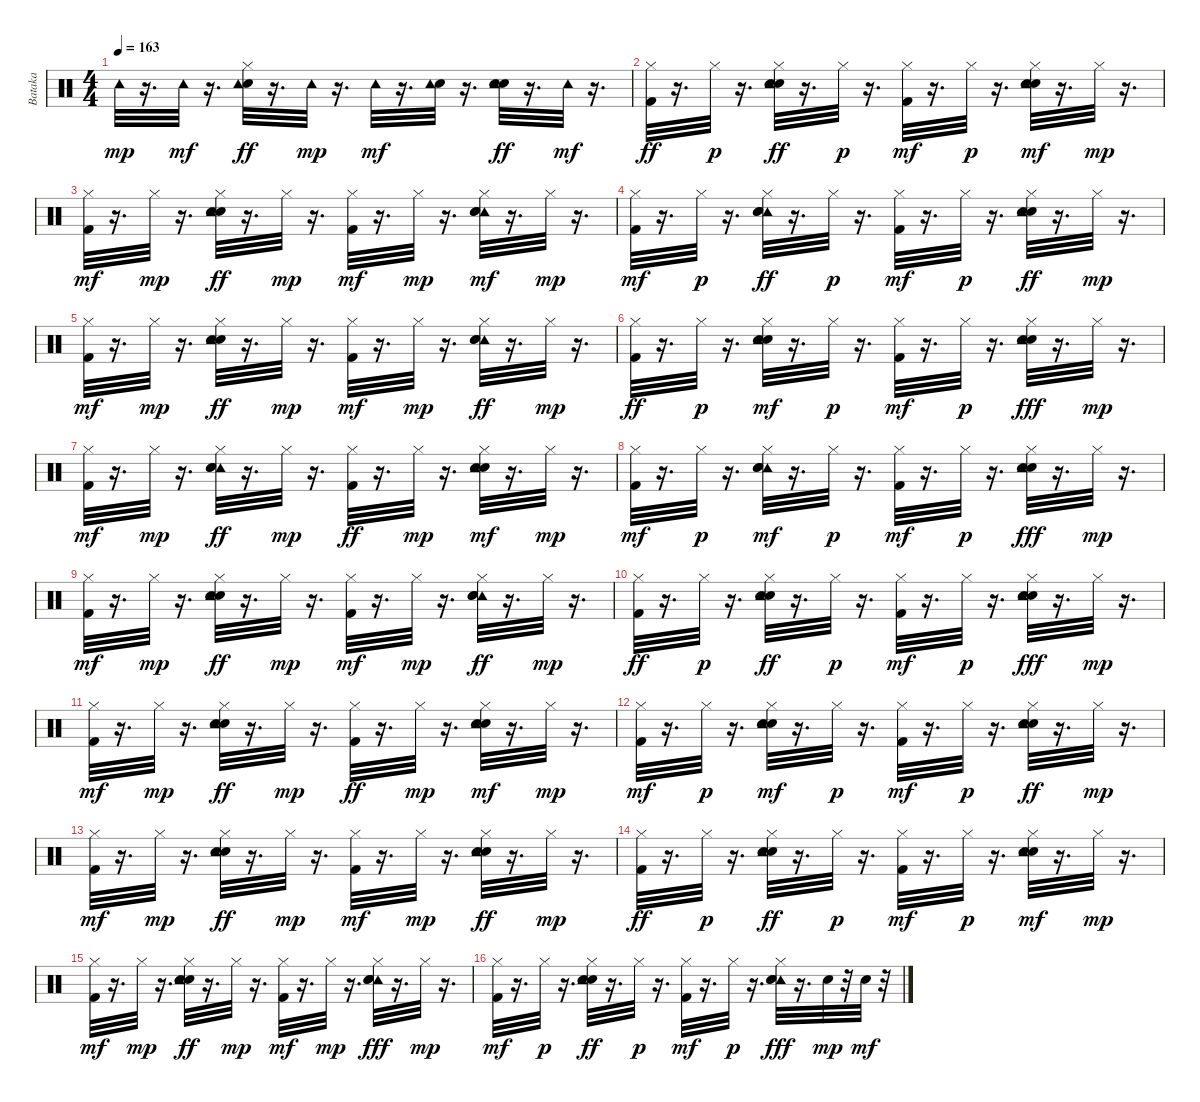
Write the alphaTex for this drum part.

\track ("Bataka" "Bataka") {instrument percussion}
\staff {score}
\articulation defaults
\ts (4 4)
\tempo 163
\clef neutral
\ks c "Tambourine (hit)".32{dy mp}
r.16{d} "Tambourine (hit)".32{dy mf} r.16{d} ("Hand Clap (hit)" "Hi-Hat (closed)" "Tambourine (hit)").32{dy ff} r.16{d} "Tambourine (hit)".32{dy mp} r.16{d} "Tambourine (hit)".32{dy mf} r.16{d} ("Electric Snare (hit)" "Tambourine (hit)").32 r.16{d} ("Electric Snare (hit)" "Hand Clap (hit)" "Tambourine (hit)").32{dy ff} r.16{d} "Tambourine (hit)".32{dy mf} r.16{d} |
("Hi-Hat (closed)" "Kick (hit) 2").32{dy ff} r.16{d} "Hi-Hat (closed)".32{dy p} r.16{d} ("Hand Clap (hit)" "Electric Snare (hit)" "Hi-Hat (closed)" "Tambourine (hit)").32{dy ff} r.16{d} "Hi-Hat (closed)".32{dy p} r.16{d} ("Kick (hit) 2" "Hi-Hat (closed)").32{dy mf} r.16{d} "Hi-Hat (closed)".32{dy p} r.16{d} ("Electric Snare (hit)" "Hand Clap (hit)" "Hi-Hat (closed)" "Tambourine (hit)").32{dy mf} r.16{d} "Hi-Hat (closed)".32{dy mp} r.16{d} |
("Hi-Hat (closed)" "Kick (hit) 2").32{dy mf} r.16{d} "Hi-Hat (closed)".32{dy mp} r.16{d} ("Electric Snare (hit)" "Hi-Hat (closed)" "Hand Clap (hit)" "Tambourine (hit)").32{dy ff} r.16{d} "Hi-Hat (closed)".32{dy mp} r.16{d} ("Kick (hit) 2" "Hi-Hat (closed)").32{dy mf} r.16{d} "Hi-Hat (closed)".32{dy mp} r.16{d} ("Tambourine (hit)" "Hand Clap (hit)" "Electric Snare (hit)" "Hi-Hat (closed)").32{dy mf} r.16{d} "Hi-Hat (closed)".32{dy mp} r.16{d} |
("Hi-Hat (closed)" "Kick (hit) 2").32{dy mf} r.16{d} "Hi-Hat (closed)".32{dy p} r.16{d} ("Hi-Hat (closed)" "Tambourine (hit)" "Electric Snare (hit)" "Hand Clap (hit)").32{dy ff} r.16{d} "Hi-Hat (closed)".32{dy p} r.16{d} ("Kick (hit) 2" "Hi-Hat (closed)").32{dy mf} r.16{d} "Hi-Hat (closed)".32{dy p} r.16{d} ("Hi-Hat (closed)" "Hand Clap (hit)" "Electric Snare (hit)" "Tambourine (hit)").32{dy ff} r.16{d} "Hi-Hat (closed)".32{dy mp} r.16{d} |
("Kick (hit) 2" "Hi-Hat (closed)").32{dy mf} r.16{d} "Hi-Hat (closed)".32{dy mp} r.16{d} ("Electric Snare (hit)" "Hand Clap (hit)" "Tambourine (hit)" "Hi-Hat (closed)").32{dy ff} r.16{d} "Hi-Hat (closed)".32{dy mp} r.16{d} ("Kick (hit) 2" "Hi-Hat (closed)").32{dy mf} r.16{d} "Hi-Hat (closed)".32{dy mp} r.16{d} ("Tambourine (hit)" "Hand Clap (hit)" "Electric Snare (hit)" "Hi-Hat (closed)").32{dy ff} r.16{d} "Hi-Hat (closed)".32{dy mp} r.16{d} |
("Kick (hit) 2" "Hi-Hat (closed)").32{dy ff} r.16{d} "Hi-Hat (closed)".32{dy p} r.16{d} ("Electric Snare (hit)" "Hand Clap (hit)" "Tambourine (hit)" "Hi-Hat (closed)").32{dy mf} r.16{d} "Hi-Hat (closed)".32{dy p} r.16{d} ("Hi-Hat (closed)" "Kick (hit) 2").32{dy mf} r.16{d} "Hi-Hat (closed)".32{dy p} r.16{d} ("Hi-Hat (closed)" "Hand Clap (hit)" "Tambourine (hit)" "Electric Snare (hit)").32{dy fff} r.16{d} "Hi-Hat (closed)".32{dy mp} r.16{d} |
("Kick (hit) 2" "Hi-Hat (closed)").32{dy mf} r.16{d} "Hi-Hat (closed)".32{dy mp} r.16{d} ("Hi-Hat (closed)" "Tambourine (hit)" "Hand Clap (hit)" "Electric Snare (hit)").32{dy ff} r.16{d} "Hi-Hat (closed)".32{dy mp} r.16{d} ("Hi-Hat (closed)" "Kick (hit) 2").32{dy ff} r.16{d} "Hi-Hat (closed)".32{dy mp} r.16{d} ("Hand Clap (hit)" "Tambourine (hit)" "Electric Snare (hit)" "Hi-Hat (closed)").32{dy mf} r.16{d} "Hi-Hat (closed)".32{dy mp} r.16{d} |
("Hi-Hat (closed)" "Kick (hit) 2").32{dy mf} r.16{d} "Hi-Hat (closed)".32{dy p} r.16{d} ("Tambourine (hit)" "Electric Snare (hit)" "Hand Clap (hit)" "Hi-Hat (closed)").32{dy mf} r.16{d} "Hi-Hat (closed)".32{dy p} r.16{d} ("Kick (hit) 2" "Hi-Hat (closed)").32{dy mf} r.16{d} "Hi-Hat (closed)".32{dy p} r.16{d} ("Hand Clap (hit)" "Tambourine (hit)" "Hi-Hat (closed)" "Electric Snare (hit)").32{dy fff} r.16{d} "Hi-Hat (closed)".32{dy mp} r.16{d} |
("Kick (hit) 2" "Hi-Hat (closed)").32{dy mf} r.16{d} "Hi-Hat (closed)".32{dy mp} r.16{d} ("Hi-Hat (closed)" "Hand Clap (hit)" "Tambourine (hit)" "Electric Snare (hit)").32{dy ff} r.16{d} "Hi-Hat (closed)".32{dy mp} r.16{d} ("Kick (hit) 2" "Hi-Hat (closed)").32{dy mf} r.16{d} "Hi-Hat (closed)".32{dy mp} r.16{d} ("Hi-Hat (closed)" "Tambourine (hit)" "Electric Snare (hit)" "Hand Clap (hit)").32{dy ff} r.16{d} "Hi-Hat (closed)".32{dy mp} r.16{d} |
("Kick (hit) 2" "Hi-Hat (closed)").32{dy ff} r.16{d} "Hi-Hat (closed)".32{dy p} r.16{d} ("Hand Clap (hit)" "Tambourine (hit)" "Hi-Hat (closed)" "Electric Snare (hit)").32{dy ff} r.16{d} "Hi-Hat (closed)".32{dy p} r.16{d} ("Kick (hit) 2" "Hi-Hat (closed)").32{dy mf} r.16{d} "Hi-Hat (closed)".32{dy p} r.16{d} ("Hand Clap (hit)" "Tambourine (hit)" "Hi-Hat (closed)" "Electric Snare (hit)").32{dy fff} r.16{d} "Hi-Hat (closed)".32{dy mp} r.16{d} |
("Hi-Hat (closed)" "Kick (hit) 2").32{dy mf} r.16{d} "Hi-Hat (closed)".32{dy mp} r.16{d} ("Hi-Hat (closed)" "Electric Snare (hit)" "Tambourine (hit)" "Hand Clap (hit)").32{dy ff} r.16{d} "Hi-Hat (closed)".32{dy mp} r.16{d} ("Hi-Hat (closed)" "Kick (hit) 2").32{dy ff} r.16{d} "Hi-Hat (closed)".32{dy mp} r.16{d} ("Electric Snare (hit)" "Hand Clap (hit)" "Hi-Hat (closed)" "Tambourine (hit)").32{dy mf} r.16{d} "Hi-Hat (closed)".32{dy mp} r.16{d} |
("Hi-Hat (closed)" "Kick (hit) 2").32{dy mf} r.16{d} "Hi-Hat (closed)".32{dy p} r.16{d} ("Electric Snare (hit)" "Hand Clap (hit)" "Tambourine (hit)" "Hi-Hat (closed)").32{dy mf} r.16{d} "Hi-Hat (closed)".32{dy p} r.16{d} ("Hi-Hat (closed)" "Kick (hit) 2").32{dy mf} r.16{d} "Hi-Hat (closed)".32{dy p} r.16{d} ("Hand Clap (hit)" "Electric Snare (hit)" "Hi-Hat (closed)" "Tambourine (hit)").32{dy ff} r.16{d} "Hi-Hat (closed)".32{dy mp} r.16{d} |
("Kick (hit) 2" "Hi-Hat (closed)").32{dy mf} r.16{d} "Hi-Hat (closed)".32{dy mp} r.16{d} ("Hi-Hat (closed)" "Hand Clap (hit)" "Tambourine (hit)" "Electric Snare (hit)").32{dy ff} r.16{d} "Hi-Hat (closed)".32{dy mp} r.16{d} ("Kick (hit) 2" "Hi-Hat (closed)").32{dy mf} r.16{d} "Hi-Hat (closed)".32{dy mp} r.16{d} ("Hi-Hat (closed)" "Hand Clap (hit)" "Electric Snare (hit)" "Tambourine (hit)").32{dy ff} r.16{d} "Hi-Hat (closed)".32{dy mp} r.16{d} |
("Kick (hit) 2" "Hi-Hat (closed)").32{dy ff} r.16{d} "Hi-Hat (closed)".32{dy p} r.16{d} ("Hi-Hat (closed)" "Hand Clap (hit)" "Electric Snare (hit)" "Tambourine (hit)").32{dy ff} r.16{d} "Hi-Hat (closed)".32{dy p} r.16{d} ("Hi-Hat (closed)" "Kick (hit) 2").32{dy mf} r.16{d} "Hi-Hat (closed)".32{dy p} r.16{d} ("Hand Clap (hit)" "Electric Snare (hit)" "Tambourine (hit)" "Hi-Hat (closed)").32{dy mf} r.16{d} "Hi-Hat (closed)".32{dy mp} r.16{d} |
("Kick (hit) 2" "Hi-Hat (closed)").32{dy mf} r.16{d} "Hi-Hat (closed)".32{dy mp} r.16{d} ("Hi-Hat (closed)" "Hand Clap (hit)" "Tambourine (hit)" "Electric Snare (hit)").32{dy ff} r.16{d} "Hi-Hat (closed)".32{dy mp} r.16{d} ("Kick (hit) 2" "Hi-Hat (closed)").32{dy mf} r.16{d} "Hi-Hat (closed)".32{dy mp} r.16{d} ("Hi-Hat (closed)" "Tambourine (hit)" "Hand Clap (hit)" "Electric Snare (hit)").32{dy fff} r.16{d} "Hi-Hat (closed)".32{dy mp} r.16{d} |
("Hi-Hat (closed)" "Kick (hit) 2").32{dy mf} r.16{d} "Hi-Hat (closed)".32{dy p} r.16{d} ("Hand Clap (hit)" "Hi-Hat (closed)" "Tambourine (hit)" "Electric Snare (hit)").32{dy ff} r.16{d} "Hi-Hat (closed)".32{dy p} r.16{d} ("Hi-Hat (closed)" "Kick (hit) 2").32{dy mf} r.16{d} "Hi-Hat (closed)".32{dy p} r.16{d} ("Tambourine (hit)" "Hand Clap (hit)" "Hi-Hat (closed)" "Electric Snare (hit)").32{dy fff} r.16{d} "Electric Snare (hit)".32{dy mp} r.32 "Electric Snare (hit)".32{dy mf} r.32
